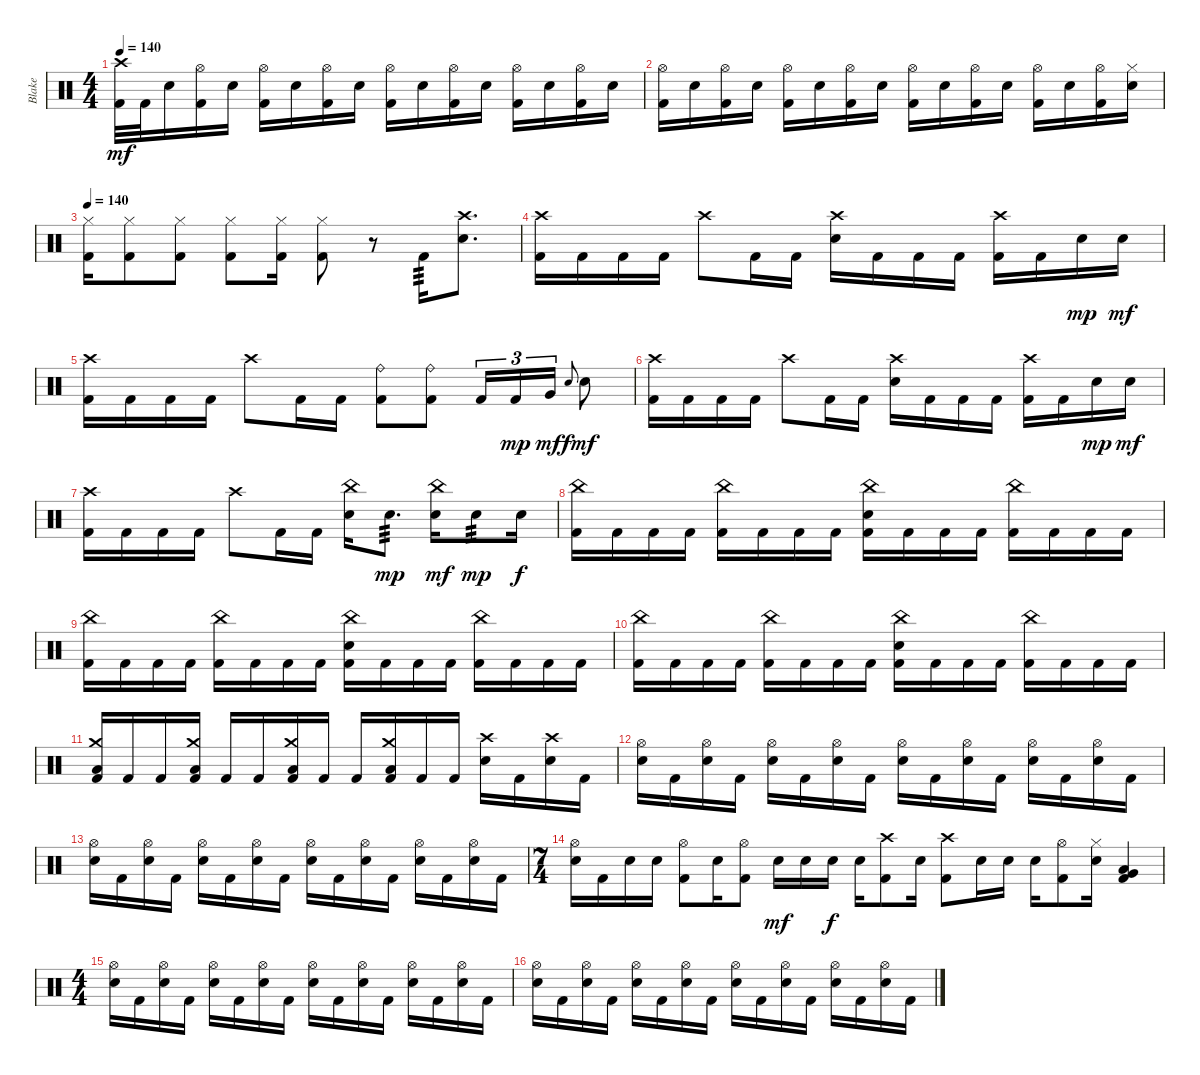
\track ("Blake" "Blake") {instrument percussion}
\staff {score}
\articulation defaults
\ts (4 4)
\tempo 140
\clef neutral
\ks c
("Crash high (hit)" "Kick (hit) 2").32{dy mf} "Kick (hit) 2".32 "Snare (hit) 2".16 ("Hi-Hat (open)" "Kick (hit) 2").16 "Snare (hit) 2".16 ("Hi-Hat (open)" "Kick (hit) 2").16 "Snare (hit) 2".16 ("Hi-Hat (open)" "Kick (hit) 2").16 "Snare (hit) 2".16 ("Hi-Hat (open)" "Kick (hit) 2").16 "Snare (hit) 2".16 ("Hi-Hat (open)" "Kick (hit) 2").16 "Snare (hit) 2".16 ("Hi-Hat (open)" "Kick (hit) 2").16 "Snare (hit) 2".16 ("Hi-Hat (open)" "Kick (hit) 2").16 "Snare (hit) 2".16 |
("Hi-Hat (open)" "Kick (hit) 2").16 "Snare (hit) 2".16 ("Hi-Hat (open)" "Kick (hit) 2").16 "Snare (hit) 2".16 ("Hi-Hat (open)" "Kick (hit) 2").16 "Snare (hit) 2".16 ("Hi-Hat (open)" "Kick (hit) 2").16 "Snare (hit) 2".16 ("Hi-Hat (open)" "Kick (hit) 2").16 "Snare (hit) 2".16 ("Hi-Hat (open)" "Kick (hit) 2").16 "Snare (hit) 2".16 ("Hi-Hat (open)" "Kick (hit) 2").16 "Snare (hit) 2".16 ("Hi-Hat (open)" "Kick (hit) 2").16 ("Hi-Hat (closed)" "Snare (hit) 2").16 |
\tempo 140
("Hi-Hat (closed)" "Kick (hit) 2").16 ("Hi-Hat (closed)" "Kick (hit) 2").8 ("Hi-Hat (closed)" "Kick (hit) 2").8 ("Hi-Hat (closed)" "Kick (hit) 2").8 ("Hi-Hat (closed)" "Kick (hit) 2").16 ("Hi-Hat (closed)" "Kick (hit) 2").8 r.8 "Kick (hit) 2".16{tp 3} ("Crash high (hit)" "Snare (hit) 2").8{d} |
("Crash high (hit)" "Kick (hit) 2").16 "Kick (hit) 2".16 "Kick (hit) 2".16 "Kick (hit) 2".16 "Crash high (hit)".8 "Kick (hit) 2".16 "Kick (hit) 2".16 ("Crash high (hit)" "Snare (hit) 2").16 "Kick (hit) 2".16 "Kick (hit) 2".16 "Kick (hit) 2".16 ("Crash high (hit)" "Kick (hit) 2").16 "Kick (hit) 2".16 "Snare (hit) 2".16{dy mp} "Snare (hit) 2".16{dy mf} |
("Crash high (hit)" "Kick (hit) 2").16 "Kick (hit) 2".16 "Kick (hit) 2".16 "Kick (hit) 2".16 "Crash high (hit)".8 "Kick (hit) 2".16 "Kick (hit) 2".16 ("Ride (bell)" "Kick (hit) 2").8 ("Ride (bell)" "Kick (hit) 2").8 "Kick (hit) 2".16{tu (3 2)} "Kick (hit) 2".16{tu (3 2) dy mp} "Very Low Tom (hit)".16{tu (3 2) dy mf} "Snare (hit) 2".8{gr onbeat dy f} "Snare (hit) 2".8{dy mf} |
("Crash high (hit)" "Kick (hit) 2").16 "Kick (hit) 2".16 "Kick (hit) 2".16 "Kick (hit) 2".16 "Crash high (hit)".8 "Kick (hit) 2".16 "Kick (hit) 2".16 ("Crash high (hit)" "Snare (hit) 2").16 "Kick (hit) 2".16 "Kick (hit) 2".16 "Kick (hit) 2".16 ("Crash high (hit)" "Kick (hit) 2").16 "Kick (hit) 2".16 "Snare (hit) 2".16{dy mp} "Snare (hit) 2".16{dy mf} |
("Crash high (hit)" "Kick (hit) 2").16 "Kick (hit) 2".16 "Kick (hit) 2".16 "Kick (hit) 2".16 "Crash high (hit)".8 "Kick (hit) 2".16 "Kick (hit) 2".16 ("China (hit)" "Snare (hit) 2").16 "Snare (hit) 2".8{d tp 3 dy mp} ("China (hit)" "Snare (hit) 2").16{dy mf} "Snare (hit) 2".8{tp 3 dy mp} "Snare (hit) 2".16{dy f} |
("China (hit)" "Kick (hit) 2").16 "Kick (hit) 2".16 "Kick (hit) 2".16 "Kick (hit) 2".16 ("China (hit)" "Kick (hit) 2").16 "Kick (hit) 2".16 "Kick (hit) 2".16 "Kick (hit) 2".16 ("China (hit)" "Snare (hit) 2" "Kick (hit) 2").16 "Kick (hit) 2".16 "Kick (hit) 2".16 "Kick (hit) 2".16 ("China (hit)" "Kick (hit) 2").16 "Kick (hit) 2".16 "Kick (hit) 2".16 "Kick (hit) 2".16 |
("China (hit)" "Kick (hit) 2").16 "Kick (hit) 2".16 "Kick (hit) 2".16 "Kick (hit) 2".16 ("China (hit)" "Kick (hit) 2").16 "Kick (hit) 2".16 "Kick (hit) 2".16 "Kick (hit) 2".16 ("China (hit)" "Snare (hit) 2" "Kick (hit) 2").16 "Kick (hit) 2".16 "Kick (hit) 2".16 "Kick (hit) 2".16 ("China (hit)" "Kick (hit) 2").16 "Kick (hit) 2".16 "Kick (hit) 2".16 "Kick (hit) 2".16 |
("China (hit)" "Kick (hit) 2").16 "Kick (hit) 2".16 "Kick (hit) 2".16 "Kick (hit) 2".16 ("China (hit)" "Kick (hit) 2").16 "Kick (hit) 2".16 "Kick (hit) 2".16 "Kick (hit) 2".16 ("China (hit)" "Snare (hit) 2" "Kick (hit) 2").16 "Kick (hit) 2".16 "Kick (hit) 2".16 "Kick (hit) 2".16 ("China (hit)" "Kick (hit) 2").16 "Kick (hit) 2".16 "Kick (hit) 2".16 "Kick (hit) 2".16 |
("Crash medium (hit)" "Low Floor Tom (hit)" "Kick (hit) 2").16 "Kick (hit) 2".16 "Kick (hit) 2".16 ("Crash medium (hit)" "Low Floor Tom (hit)" "Kick (hit) 2").16 "Kick (hit) 2".16 "Kick (hit) 2".16 ("Crash medium (hit)" "Low Floor Tom (hit)" "Kick (hit) 2").16 "Kick (hit) 2".16 "Kick (hit) 2".16 ("Crash medium (hit)" "Low Floor Tom (hit)" "Kick (hit) 2").16 "Kick (hit) 2".16 "Kick (hit) 2".16 ("Crash high (hit)" "Snare (hit) 2").16 "Kick (hit) 2".16 ("Crash high (hit)" "Snare (hit) 2").16 "Kick (hit) 2".16 |
("Hi-Hat (open)" "Snare (hit) 2").16 "Kick (hit) 2".16 ("Hi-Hat (open)" "Snare (hit) 2").16 "Kick (hit) 2".16 ("Hi-Hat (open)" "Snare (hit) 2").16 "Kick (hit) 2".16 ("Hi-Hat (open)" "Snare (hit) 2").16 "Kick (hit) 2".16 ("Hi-Hat (open)" "Snare (hit) 2").16 "Kick (hit) 2".16 ("Hi-Hat (open)" "Snare (hit) 2").16 "Kick (hit) 2".16 ("Hi-Hat (open)" "Snare (hit) 2").16 "Kick (hit) 2".16 ("Hi-Hat (open)" "Snare (hit) 2").16 "Kick (hit) 2".16 |
("Hi-Hat (open)" "Snare (hit) 2").16 "Kick (hit) 2".16 ("Hi-Hat (open)" "Snare (hit) 2").16 "Kick (hit) 2".16 ("Hi-Hat (open)" "Snare (hit) 2").16 "Kick (hit) 2".16 ("Hi-Hat (open)" "Snare (hit) 2").16 "Kick (hit) 2".16 ("Hi-Hat (open)" "Snare (hit) 2").16 "Kick (hit) 2".16 ("Hi-Hat (open)" "Snare (hit) 2").16 "Kick (hit) 2".16 ("Hi-Hat (open)" "Snare (hit) 2").16 "Kick (hit) 2".16 ("Hi-Hat (open)" "Snare (hit) 2").16 "Kick (hit) 2".16 |
\ts (7 4)
("Hi-Hat (open)" "Snare (hit) 2").16 "Kick (hit) 2".16 "Snare (hit) 2".16 "Snare (hit) 2".16 ("Hi-Hat (open)" "Kick (hit) 2").8 "Snare (hit) 2".16 ("Hi-Hat (open)" "Kick (hit) 2").8 "Snare (hit) 2".16{dy mf} "Snare (hit) 2".16 "Snare (hit) 2".16{dy f} "Snare (hit) 2".16 ("Crash high (hit)" "Kick (hit) 2").8 "Snare (hit) 2".16 ("Crash high (hit)" "Kick (hit) 2").8 "Snare (hit) 2".16 "Snare (hit) 2".16 "Snare (hit) 2".16 ("Hi-Hat (open)" "Kick (hit) 2").8 ("Hi-Hat (closed)" "Snare (hit) 2").16 ("Very Low Tom (hit)" "Low Floor Tom (hit)" "Kick (hit) 2").4 |
\ts (4 4)
("Hi-Hat (open)" "Snare (hit) 2").16 "Kick (hit) 2".16 ("Hi-Hat (open)" "Snare (hit) 2").16 "Kick (hit) 2".16 ("Hi-Hat (open)" "Snare (hit) 2").16 "Kick (hit) 2".16 ("Hi-Hat (open)" "Snare (hit) 2").16 "Kick (hit) 2".16 ("Hi-Hat (open)" "Snare (hit) 2").16 "Kick (hit) 2".16 ("Hi-Hat (open)" "Snare (hit) 2").16 "Kick (hit) 2".16 ("Hi-Hat (open)" "Snare (hit) 2").16 "Kick (hit) 2".16 ("Hi-Hat (open)" "Snare (hit) 2").16 "Kick (hit) 2".16 |
("Hi-Hat (open)" "Snare (hit) 2").16 "Kick (hit) 2".16 ("Hi-Hat (open)" "Snare (hit) 2").16 "Kick (hit) 2".16 ("Hi-Hat (open)" "Snare (hit) 2").16 "Kick (hit) 2".16 ("Hi-Hat (open)" "Snare (hit) 2").16 "Kick (hit) 2".16 ("Hi-Hat (open)" "Snare (hit) 2").16 "Kick (hit) 2".16 ("Hi-Hat (open)" "Snare (hit) 2").16 "Kick (hit) 2".16 ("Hi-Hat (open)" "Snare (hit) 2").16 "Kick (hit) 2".16 ("Hi-Hat (open)" "Snare (hit) 2").16 "Kick (hit) 2".16
